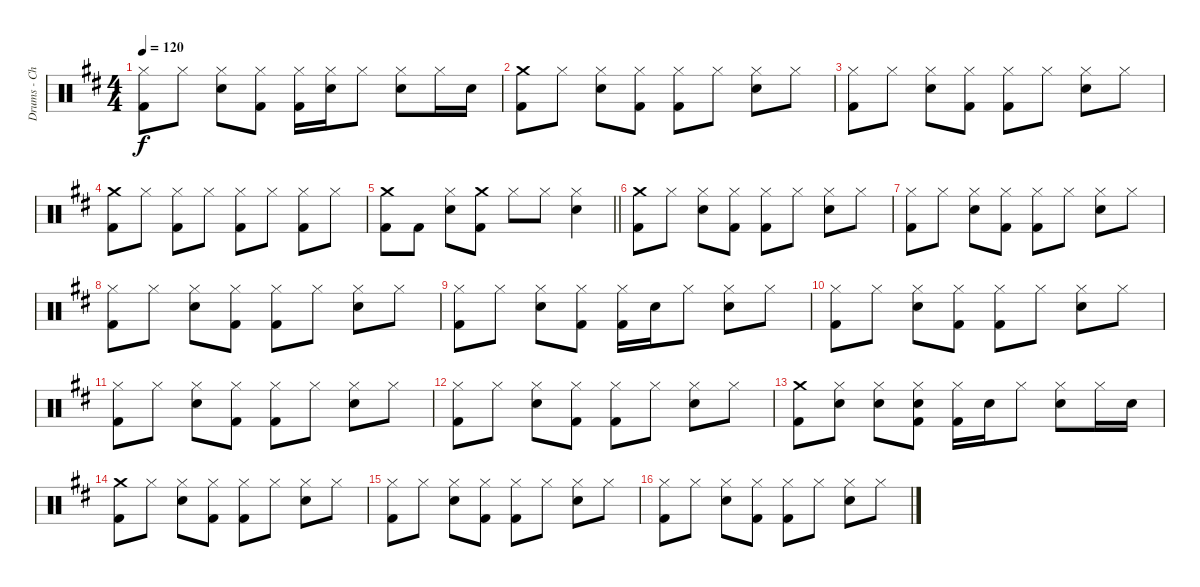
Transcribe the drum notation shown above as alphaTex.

\track ("Drums - Choi Min Hwan" "Drums - Ch") {instrument percussion}
\staff {score}
\articulation defaults
\ts (4 4)
\tempo 120
\clef neutral
\ks bminor
("Hi-Hat (closed)" "Kick (hit) 2").8{dy f} "Hi-Hat (closed)".8 ("Hi-Hat (closed)" "Electric Snare (hit)").8 ("Hi-Hat (closed)" "Kick (hit) 2").8 ("Hi-Hat (closed)" "Kick (hit) 2").16 ("Hi-Hat (closed)" "Electric Snare (hit)").16 "Hi-Hat (closed)".8 ("Hi-Hat (closed)" "Electric Snare (hit)").8 "Hi-Hat (closed)".16 "Electric Snare (hit)".16 |
("Crash medium (hit)" "Kick (hit) 2").8 "Hi-Hat (closed)".8 ("Hi-Hat (closed)" "Electric Snare (hit)").8 ("Hi-Hat (closed)" "Kick (hit) 2").8 ("Hi-Hat (closed)" "Kick (hit) 2").8 "Hi-Hat (closed)".8 ("Hi-Hat (closed)" "Electric Snare (hit)").8 "Hi-Hat (closed)".8 |
("Hi-Hat (closed)" "Kick (hit) 2").8 "Hi-Hat (closed)".8 ("Hi-Hat (closed)" "Electric Snare (hit)").8 ("Hi-Hat (closed)" "Kick (hit) 2").8 ("Hi-Hat (closed)" "Kick (hit) 2").8 "Hi-Hat (closed)".8 ("Hi-Hat (closed)" "Electric Snare (hit)").8 "Hi-Hat (closed)".8 |
("Crash medium (hit)" "Kick (hit) 2").8 "Hi-Hat (closed)".8 ("Hi-Hat (closed)" "Kick (hit) 2").8 "Hi-Hat (closed)".8 ("Hi-Hat (closed)" "Kick (hit) 2").8 "Hi-Hat (closed)".8 ("Hi-Hat (closed)" "Kick (hit) 2").8 "Hi-Hat (closed)".8 |
\barLineRight lightlight
("Crash medium (hit)" "Kick (hit) 2").8 "Kick (hit) 2".8 ("Hi-Hat (closed)" "Electric Snare (hit)").8 ("Crash medium (hit)" "Kick (hit) 2").8 "Hi-Hat (closed)".8 "Hi-Hat (closed)".8 ("Hi-Hat (closed)" "Electric Snare (hit)").4 |
("Crash medium (hit)" "Kick (hit) 2").8 "Hi-Hat (closed)".8 ("Hi-Hat (closed)" "Electric Snare (hit)").8 ("Hi-Hat (closed)" "Kick (hit) 2").8 ("Hi-Hat (closed)" "Kick (hit) 2").8 "Hi-Hat (closed)".8 ("Hi-Hat (closed)" "Electric Snare (hit)").8 "Hi-Hat (closed)".8 |
("Hi-Hat (closed)" "Kick (hit) 2").8 "Hi-Hat (closed)".8 ("Hi-Hat (closed)" "Electric Snare (hit)").8 ("Hi-Hat (closed)" "Kick (hit) 2").8 ("Hi-Hat (closed)" "Kick (hit) 2").8 "Hi-Hat (closed)".8 ("Hi-Hat (closed)" "Electric Snare (hit)").8 "Hi-Hat (closed)".8 |
("Hi-Hat (closed)" "Kick (hit) 2").8 "Hi-Hat (closed)".8 ("Hi-Hat (closed)" "Electric Snare (hit)").8 ("Hi-Hat (closed)" "Kick (hit) 2").8 ("Hi-Hat (closed)" "Kick (hit) 2").8 "Hi-Hat (closed)".8 ("Hi-Hat (closed)" "Electric Snare (hit)").8 "Hi-Hat (closed)".8 |
("Hi-Hat (closed)" "Kick (hit) 2").8 "Hi-Hat (closed)".8 ("Hi-Hat (closed)" "Electric Snare (hit)").8 ("Hi-Hat (closed)" "Kick (hit) 2").8 ("Hi-Hat (closed)" "Kick (hit) 2").16 "Electric Snare (hit)".16 "Hi-Hat (closed)".8 ("Hi-Hat (closed)" "Electric Snare (hit)").8 "Hi-Hat (closed)".8 |
("Hi-Hat (closed)" "Kick (hit) 2").8 "Hi-Hat (closed)".8 ("Hi-Hat (closed)" "Electric Snare (hit)").8 ("Hi-Hat (closed)" "Kick (hit) 2").8 ("Hi-Hat (closed)" "Kick (hit) 2").8 "Hi-Hat (closed)".8 ("Hi-Hat (closed)" "Electric Snare (hit)").8 "Hi-Hat (closed)".8 |
("Hi-Hat (closed)" "Kick (hit) 2").8 "Hi-Hat (closed)".8 ("Hi-Hat (closed)" "Electric Snare (hit)").8 ("Hi-Hat (closed)" "Kick (hit) 2").8 ("Hi-Hat (closed)" "Kick (hit) 2").8 "Hi-Hat (closed)".8 ("Hi-Hat (closed)" "Electric Snare (hit)").8 "Hi-Hat (closed)".8 |
("Hi-Hat (closed)" "Kick (hit) 2").8 "Hi-Hat (closed)".8 ("Hi-Hat (closed)" "Electric Snare (hit)").8 ("Hi-Hat (closed)" "Kick (hit) 2").8 ("Hi-Hat (closed)" "Kick (hit) 2").8 "Hi-Hat (closed)".8 ("Hi-Hat (closed)" "Electric Snare (hit)").8 "Hi-Hat (closed)".8 |
("Crash medium (hit)" "Kick (hit) 2").8 ("Hi-Hat (closed)" "Electric Snare (hit)").8 ("Hi-Hat (closed)" "Electric Snare (hit)").8 ("Hi-Hat (closed)" "Electric Snare (hit)" "Kick (hit) 2").8 ("Hi-Hat (closed)" "Kick (hit) 2").16 "Electric Snare (hit)".16 "Hi-Hat (closed)".8 ("Hi-Hat (closed)" "Electric Snare (hit)").8 "Hi-Hat (closed)".16 "Electric Snare (hit)".16 |
("Crash medium (hit)" "Kick (hit) 2").8 "Hi-Hat (closed)".8 ("Hi-Hat (closed)" "Electric Snare (hit)").8 ("Hi-Hat (closed)" "Kick (hit) 2").8 ("Hi-Hat (closed)" "Kick (hit) 2").8 "Hi-Hat (closed)".8 ("Hi-Hat (closed)" "Electric Snare (hit)").8 "Hi-Hat (closed)".8 |
("Hi-Hat (closed)" "Kick (hit) 2").8 "Hi-Hat (closed)".8 ("Hi-Hat (closed)" "Electric Snare (hit)").8 ("Hi-Hat (closed)" "Kick (hit) 2").8 ("Hi-Hat (closed)" "Kick (hit) 2").8 "Hi-Hat (closed)".8 ("Hi-Hat (closed)" "Electric Snare (hit)").8 "Hi-Hat (closed)".8 |
("Hi-Hat (closed)" "Kick (hit) 2").8 "Hi-Hat (closed)".8 ("Hi-Hat (closed)" "Electric Snare (hit)").8 ("Hi-Hat (closed)" "Kick (hit) 2").8 ("Hi-Hat (closed)" "Kick (hit) 2").8 "Hi-Hat (closed)".8 ("Hi-Hat (closed)" "Electric Snare (hit)").8 "Hi-Hat (closed)".8
